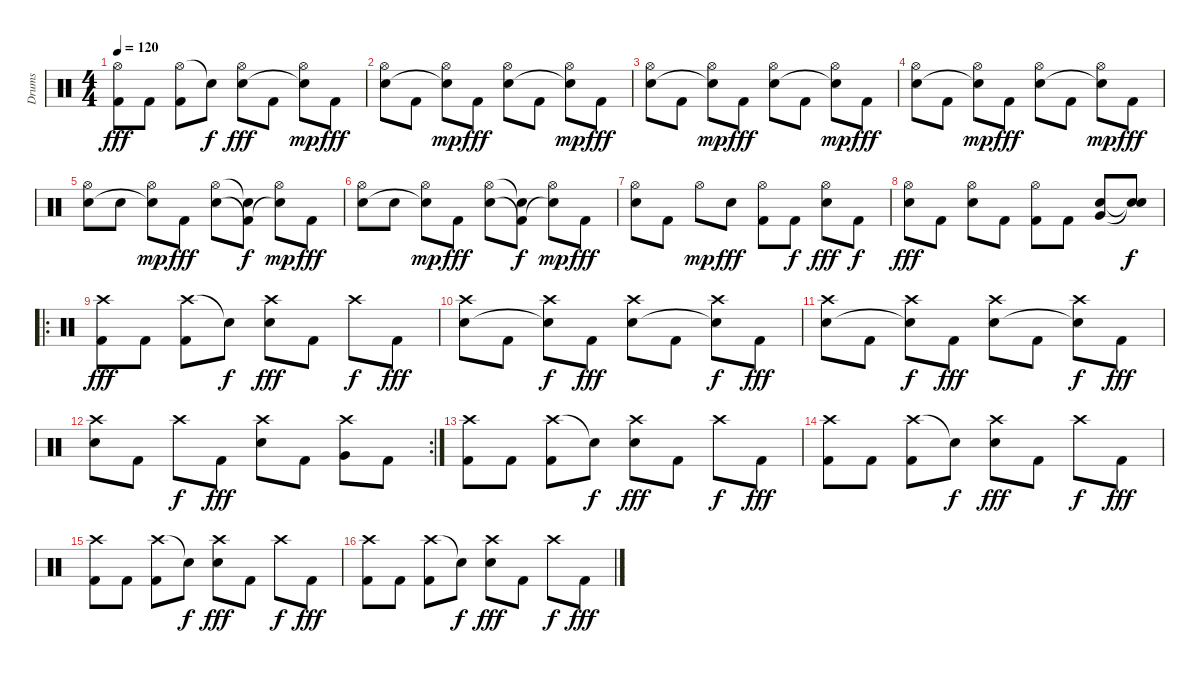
\track ("Drums" "Drums") {instrument percussion}
\staff {score}
\articulation defaults
\ts (4 4)
\tempo 120
\clef neutral
\ks c
("Hi-Hat (open)" "Kick (hit) 2").8{dy fff} "Kick (hit) 2".8 ("Hi-Hat (open)" "Kick (hit) 2").8 "Snare (hit)"{t}.8{dy f} ("Hi-Hat (open)" "Electric Snare (hit)").8{dy fff} "Kick (hit) 2".8 ("Hi-Hat (open)" "Snare (hit)"{t}).8{dy mp} "Kick (hit) 2".8{dy fff} |
("Hi-Hat (open)" "Electric Snare (hit)").8 "Kick (hit) 2".8 ("Hi-Hat (open)" "Snare (hit)"{t}).8{dy mp} "Kick (hit) 2".8{dy fff} ("Hi-Hat (open)" "Electric Snare (hit)").8 "Kick (hit) 2".8 ("Hi-Hat (open)" "Snare (hit)"{t}).8{dy mp} "Kick (hit) 2".8{dy fff} |
("Hi-Hat (open)" "Electric Snare (hit)").8 "Kick (hit) 2".8 ("Hi-Hat (open)" "Snare (hit)"{t}).8{dy mp} "Kick (hit) 2".8{dy fff} ("Hi-Hat (open)" "Electric Snare (hit)").8 "Kick (hit) 2".8 ("Hi-Hat (open)" "Snare (hit)"{t}).8{dy mp} "Kick (hit) 2".8{dy fff} |
("Hi-Hat (open)" "Electric Snare (hit)").8 "Kick (hit) 2".8 ("Hi-Hat (open)" "Snare (hit)"{t}).8{dy mp} "Kick (hit) 2".8{dy fff} ("Hi-Hat (open)" "Electric Snare (hit)").8 "Kick (hit) 2".8 ("Hi-Hat (open)" "Snare (hit)"{t}).8{dy mp} "Kick (hit) 2".8{dy fff} |
("Hi-Hat (open)" "Electric Snare (hit)").8 "Electric Snare (hit)".8 ("Hi-Hat (open)" "Snare (hit)"{t}).8{dy mp} "Kick (hit) 2".8{dy fff} ("Hi-Hat (open)" "Electric Snare (hit)").8 ("Snare (hit)"{t} "Kick (hit) 2"{t}).8{dy f} ("Hi-Hat (open)" "Snare (hit)"{t}).8{dy mp} "Kick (hit) 2".8{dy fff} |
("Hi-Hat (open)" "Electric Snare (hit)").8 "Electric Snare (hit)".8 ("Hi-Hat (open)" "Snare (hit)"{t}).8{dy mp} "Kick (hit) 2".8{dy fff} ("Hi-Hat (open)" "Electric Snare (hit)").8 ("Snare (hit)"{t} "Kick (hit) 2"{t}).8{dy f} ("Hi-Hat (open)" "Snare (hit)"{t}).8{dy mp} "Kick (hit) 2".8{dy fff} |
("Hi-Hat (open)" "Electric Snare (hit)").8 "Kick (hit) 2".8 "Hi-Hat (open)".8{dy mp} "Electric Snare (hit)".8{dy fff} ("Hi-Hat (open)" "Kick (hit) 2").8 "Kick (hit) 2".8{dy f} ("Hi-Hat (open)" "Electric Snare (hit)").8{dy fff} "Kick (hit) 2".8{dy f} |
("Hi-Hat (open)" "Electric Snare (hit)").8{dy fff} "Kick (hit) 2".8 ("Hi-Hat (open)" "Electric Snare (hit)").8 "Kick (hit) 2".8 ("Hi-Hat (open)" "Kick (hit) 2").8 "Kick (hit) 2".8 ("Very Low Tom (hit)" "Electric Snare (hit)").8 ("Snare (hit)"{t} "Snare (hit)"{t}).8{dy f} |
\ro
("Crash high (hit)" "Kick (hit) 2").8{dy fff} "Kick (hit) 2".8 ("Crash high (hit)" "Kick (hit) 2").8 "Electric Snare (hit)"{t}.8{dy f} ("Crash high (hit)" "Electric Snare (hit)").8{dy fff} "Kick (hit) 2".8 "Crash high (hit)".8{dy f} "Kick (hit) 2".8{dy fff} |
("Crash high (hit)" "Electric Snare (hit)").8 "Kick (hit) 2".8 ("Crash high (hit)" "Snare (hit)"{t}).8{dy f} "Kick (hit) 2".8{dy fff} ("Crash high (hit)" "Electric Snare (hit)").8 "Kick (hit) 2".8 ("Crash high (hit)" "Snare (hit)"{t}).8{dy f} "Kick (hit) 2".8{dy fff} |
("Crash high (hit)" "Electric Snare (hit)").8 "Kick (hit) 2".8 ("Crash high (hit)" "Snare (hit)"{t}).8{dy f} "Kick (hit) 2".8{dy fff} ("Crash high (hit)" "Electric Snare (hit)").8 "Kick (hit) 2".8 ("Crash high (hit)" "Snare (hit)"{t}).8{dy f} "Kick (hit) 2".8{dy fff} |
\rc 2
("Crash high (hit)" "Electric Snare (hit)").8 "Kick (hit) 2".8 "Crash high (hit)".8{dy f} "Kick (hit) 2".8{dy fff} ("Crash high (hit)" "Electric Snare (hit)").8 "Kick (hit) 2".8 ("Crash high (hit)" "Very Low Tom (hit)").8 "Kick (hit) 2".8 |
("Crash high (hit)" "Kick (hit) 2").8 "Kick (hit) 2".8 ("Crash high (hit)" "Kick (hit) 2").8 "Electric Snare (hit)"{t}.8{dy f} ("Crash high (hit)" "Electric Snare (hit)").8{dy fff} "Kick (hit) 2".8 "Crash high (hit)".8{dy f} "Kick (hit) 2".8{dy fff} |
("Crash high (hit)" "Kick (hit) 2").8 "Kick (hit) 2".8 ("Crash high (hit)" "Kick (hit) 2").8 "Electric Snare (hit)"{t}.8{dy f} ("Crash high (hit)" "Electric Snare (hit)").8{dy fff} "Kick (hit) 2".8 "Crash high (hit)".8{dy f} "Kick (hit) 2".8{dy fff} |
("Crash high (hit)" "Kick (hit) 2").8 "Kick (hit) 2".8 ("Crash high (hit)" "Kick (hit) 2").8 "Electric Snare (hit)"{t}.8{dy f} ("Crash high (hit)" "Electric Snare (hit)").8{dy fff} "Kick (hit) 2".8 "Crash high (hit)".8{dy f} "Kick (hit) 2".8{dy fff} |
("Crash high (hit)" "Kick (hit) 2").8 "Kick (hit) 2".8 ("Crash high (hit)" "Kick (hit) 2").8 "Electric Snare (hit)"{t}.8{dy f} ("Crash high (hit)" "Electric Snare (hit)").8{dy fff} "Kick (hit) 2".8 "Crash high (hit)".8{dy f} "Kick (hit) 2".8{dy fff}
